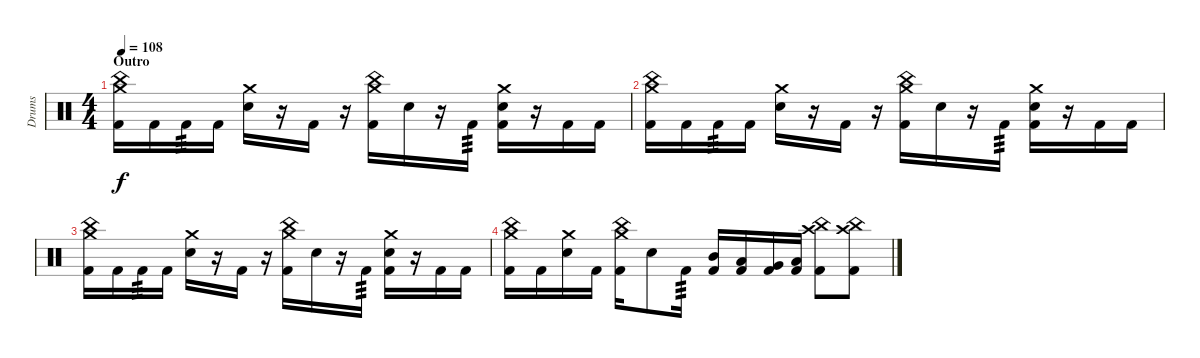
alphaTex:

\track ("Drums" "Drums") {instrument percussion}
\staff {score}
\articulation defaults
\ts (4 4)
\section ("" "Outro")
\tempo 108
\clef neutral
\ks c
("Crash medium (hit)" "China (hit)" "Kick (hit) 2").16{dy f} "Kick (hit) 2".16 "Kick (hit) 2".16{tp 3} "Kick (hit) 2".16 ("Crash medium (hit)" "Electric Snare (hit)").16 r.16 "Kick (hit) 2".16 r.16 ("Crash medium (hit)" "China (hit)" "Kick (hit) 2").16 "Electric Snare (hit)".16 r.16 "Kick (hit) 2".16{tp 3} ("Crash medium (hit)" "Electric Snare (hit)" "Kick (hit) 2").16 r.16 "Kick (hit) 2".16 "Kick (hit) 2".16 |
("Crash medium (hit)" "China (hit)" "Kick (hit) 2").16 "Kick (hit) 2".16 "Kick (hit) 2".16{tp 3} "Kick (hit) 2".16 ("Crash medium (hit)" "Electric Snare (hit)").16 r.16 "Kick (hit) 2".16 r.16 ("Crash medium (hit)" "China (hit)" "Kick (hit) 2").16 "Electric Snare (hit)".16 r.16 "Kick (hit) 2".16{tp 3} ("Crash medium (hit)" "Electric Snare (hit)" "Kick (hit) 2").16 r.16 "Kick (hit) 2".16 "Kick (hit) 2".16 |
("Crash medium (hit)" "China (hit)" "Kick (hit) 2").16 "Kick (hit) 2".16 "Kick (hit) 2".16{tp 3} "Kick (hit) 2".16 ("Crash medium (hit)" "Electric Snare (hit)").16 r.16 "Kick (hit) 2".16 r.16 ("Crash medium (hit)" "China (hit)" "Kick (hit) 2").16 "Electric Snare (hit)".16 r.16 "Kick (hit) 2".16{tp 3} ("Crash medium (hit)" "Electric Snare (hit)" "Kick (hit) 2").16 r.16 "Kick (hit) 2".16 "Kick (hit) 2".16 |
("Crash medium (hit)" "China (hit)" "Kick (hit) 2").16 "Kick (hit) 2".16 ("Crash medium (hit)" "Electric Snare (hit)").16 "Kick (hit) 2".16 ("Crash medium (hit)" "China (hit)" "Kick (hit) 2").16 "Electric Snare (hit)".8 "Kick (hit) 2".16{tp 3} ("Mid Tom (hit)" "Kick (hit) 2").16 ("Low Tom (hit)" "Kick (hit) 2").16 ("Very Low Tom (hit)" "Kick (hit) 2").16 ("Low Floor Tom (hit)" "Kick (hit) 2").16 ("China (hit)" "Crash high (hit)" "Kick (hit) 2").8 ("China (hit)" "Crash high (hit)" "Kick (hit) 2").8
